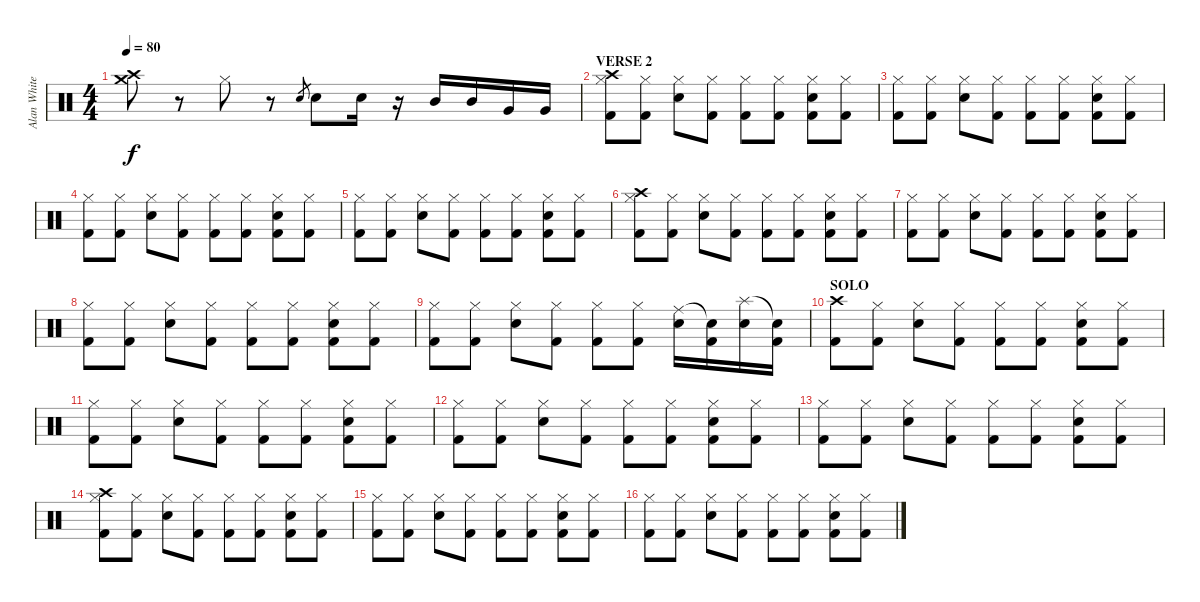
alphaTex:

\track ("Alan White" "Alan White") {instrument percussion}
\staff {score}
\articulation defaults
\ts (4 4)
\tempo 80
\clef neutral
\ks c
("Crash medium (hit)" "Crash high (hit)").8{dy f} r.8 "Hi-Hat (closed)".8 r.8 "Snare (hit) 2".8{gr} "Snare (hit) 2".8 "Snare (hit) 2".16 r.16 "Mid Tom (hit)".16 "Mid Tom (hit)".16 "Very Low Tom (hit)".16 "Very Low Tom (hit)".16 |
\section ("" "VERSE 2")
("Hi-Hat (closed)" "Crash high (hit)" "Kick (hit) 2").8 ("Hi-Hat (closed)" "Kick (hit) 2").8 ("Hi-Hat (closed)" "Snare (hit) 2").8 ("Hi-Hat (closed)" "Kick (hit) 2").8 ("Hi-Hat (closed)" "Kick (hit) 2").8 ("Hi-Hat (closed)" "Kick (hit) 2").8 ("Hi-Hat (closed)" "Snare (hit) 2" "Kick (hit) 2").8 ("Hi-Hat (closed)" "Kick (hit) 2").8 |
("Hi-Hat (closed)" "Kick (hit) 2").8 ("Hi-Hat (closed)" "Kick (hit) 2").8 ("Hi-Hat (closed)" "Snare (hit) 2").8 ("Hi-Hat (closed)" "Kick (hit) 2").8 ("Hi-Hat (closed)" "Kick (hit) 2").8 ("Hi-Hat (closed)" "Kick (hit) 2").8 ("Hi-Hat (closed)" "Snare (hit) 2" "Kick (hit) 2").8 ("Hi-Hat (closed)" "Kick (hit) 2").8 |
("Hi-Hat (closed)" "Kick (hit) 2").8 ("Hi-Hat (closed)" "Kick (hit) 2").8 ("Hi-Hat (closed)" "Snare (hit) 2").8 ("Hi-Hat (closed)" "Kick (hit) 2").8 ("Hi-Hat (closed)" "Kick (hit) 2").8 ("Hi-Hat (closed)" "Kick (hit) 2").8 ("Hi-Hat (closed)" "Snare (hit) 2" "Kick (hit) 2").8 ("Hi-Hat (closed)" "Kick (hit) 2").8 |
("Hi-Hat (closed)" "Kick (hit) 2").8 ("Hi-Hat (closed)" "Kick (hit) 2").8 ("Hi-Hat (closed)" "Snare (hit) 2").8 ("Hi-Hat (closed)" "Kick (hit) 2").8 ("Hi-Hat (closed)" "Kick (hit) 2").8 ("Hi-Hat (closed)" "Kick (hit) 2").8 ("Hi-Hat (closed)" "Snare (hit) 2" "Kick (hit) 2").8 ("Hi-Hat (closed)" "Kick (hit) 2").8 |
("Hi-Hat (closed)" "Crash high (hit)" "Kick (hit) 2").8 ("Hi-Hat (closed)" "Kick (hit) 2").8 ("Hi-Hat (closed)" "Snare (hit) 2").8 ("Hi-Hat (closed)" "Kick (hit) 2").8 ("Hi-Hat (closed)" "Kick (hit) 2").8 ("Hi-Hat (closed)" "Kick (hit) 2").8 ("Hi-Hat (closed)" "Snare (hit) 2" "Kick (hit) 2").8 ("Hi-Hat (closed)" "Kick (hit) 2").8 |
("Hi-Hat (closed)" "Kick (hit) 2").8 ("Hi-Hat (closed)" "Kick (hit) 2").8 ("Hi-Hat (closed)" "Snare (hit) 2").8 ("Hi-Hat (closed)" "Kick (hit) 2").8 ("Hi-Hat (closed)" "Kick (hit) 2").8 ("Hi-Hat (closed)" "Kick (hit) 2").8 ("Hi-Hat (closed)" "Snare (hit) 2" "Kick (hit) 2").8 ("Hi-Hat (closed)" "Kick (hit) 2").8 |
("Hi-Hat (closed)" "Kick (hit) 2").8 ("Hi-Hat (closed)" "Kick (hit) 2").8 ("Hi-Hat (closed)" "Snare (hit) 2").8 ("Hi-Hat (closed)" "Kick (hit) 2").8 ("Hi-Hat (closed)" "Kick (hit) 2").8 ("Hi-Hat (closed)" "Kick (hit) 2").8 ("Hi-Hat (closed)" "Snare (hit) 2" "Kick (hit) 2").8 ("Hi-Hat (closed)" "Kick (hit) 2").8 |
("Hi-Hat (closed)" "Kick (hit) 2").8 ("Hi-Hat (closed)" "Kick (hit) 2").8 ("Hi-Hat (closed)" "Snare (hit) 2").8 ("Hi-Hat (closed)" "Kick (hit) 2").8 ("Hi-Hat (closed)" "Kick (hit) 2").8 ("Hi-Hat (closed)" "Kick (hit) 2").8 ("Ride (middle)" "Snare (hit) 2").16 ("Snare (hit)"{t} "Kick (hit) 2").16 ("Splash (hit)" "Snare (hit) 2").16 ("Snare (hit)"{t} "Kick (hit) 2").16 |
\section ("" "SOLO")
("Crash high (hit)" "Kick (hit) 2").8 ("Hi-Hat (closed)" "Kick (hit) 2").8 ("Hi-Hat (closed)" "Snare (hit) 2").8 ("Hi-Hat (closed)" "Kick (hit) 2").8 ("Hi-Hat (closed)" "Kick (hit) 2").8 ("Hi-Hat (closed)" "Kick (hit) 2").8 ("Hi-Hat (closed)" "Snare (hit) 2" "Kick (hit) 2").8 ("Hi-Hat (closed)" "Kick (hit) 2").8 |
("Hi-Hat (closed)" "Kick (hit) 2").8 ("Hi-Hat (closed)" "Kick (hit) 2").8 ("Hi-Hat (closed)" "Snare (hit) 2").8 ("Hi-Hat (closed)" "Kick (hit) 2").8 ("Hi-Hat (closed)" "Kick (hit) 2").8 ("Hi-Hat (closed)" "Kick (hit) 2").8 ("Hi-Hat (closed)" "Snare (hit) 2" "Kick (hit) 2").8 ("Hi-Hat (closed)" "Kick (hit) 2").8 |
("Hi-Hat (closed)" "Kick (hit) 2").8 ("Hi-Hat (closed)" "Kick (hit) 2").8 ("Hi-Hat (closed)" "Snare (hit) 2").8 ("Hi-Hat (closed)" "Kick (hit) 2").8 ("Hi-Hat (closed)" "Kick (hit) 2").8 ("Hi-Hat (closed)" "Kick (hit) 2").8 ("Hi-Hat (closed)" "Snare (hit) 2" "Kick (hit) 2").8 ("Hi-Hat (closed)" "Kick (hit) 2").8 |
("Hi-Hat (closed)" "Kick (hit) 2").8 ("Hi-Hat (closed)" "Kick (hit) 2").8 ("Hi-Hat (closed)" "Snare (hit) 2").8 ("Hi-Hat (closed)" "Kick (hit) 2").8 ("Hi-Hat (closed)" "Kick (hit) 2").8 ("Hi-Hat (closed)" "Kick (hit) 2").8 ("Hi-Hat (closed)" "Snare (hit) 2" "Kick (hit) 2").8 ("Hi-Hat (closed)" "Kick (hit) 2").8 |
("Hi-Hat (closed)" "Crash high (hit)" "Kick (hit) 2").8 ("Hi-Hat (closed)" "Kick (hit) 2").8 ("Hi-Hat (closed)" "Snare (hit) 2").8 ("Hi-Hat (closed)" "Kick (hit) 2").8 ("Hi-Hat (closed)" "Kick (hit) 2").8 ("Hi-Hat (closed)" "Kick (hit) 2").8 ("Hi-Hat (closed)" "Snare (hit) 2" "Kick (hit) 2").8 ("Hi-Hat (closed)" "Kick (hit) 2").8 |
("Hi-Hat (closed)" "Kick (hit) 2").8 ("Hi-Hat (closed)" "Kick (hit) 2").8 ("Hi-Hat (closed)" "Snare (hit) 2").8 ("Hi-Hat (closed)" "Kick (hit) 2").8 ("Hi-Hat (closed)" "Kick (hit) 2").8 ("Hi-Hat (closed)" "Kick (hit) 2").8 ("Hi-Hat (closed)" "Snare (hit) 2" "Kick (hit) 2").8 ("Hi-Hat (closed)" "Kick (hit) 2").8 |
("Hi-Hat (closed)" "Kick (hit) 2").8 ("Hi-Hat (closed)" "Kick (hit) 2").8 ("Hi-Hat (closed)" "Snare (hit) 2").8 ("Hi-Hat (closed)" "Kick (hit) 2").8 ("Hi-Hat (closed)" "Kick (hit) 2").8 ("Hi-Hat (closed)" "Kick (hit) 2").8 ("Hi-Hat (closed)" "Snare (hit) 2" "Kick (hit) 2").8 ("Hi-Hat (closed)" "Kick (hit) 2").8
